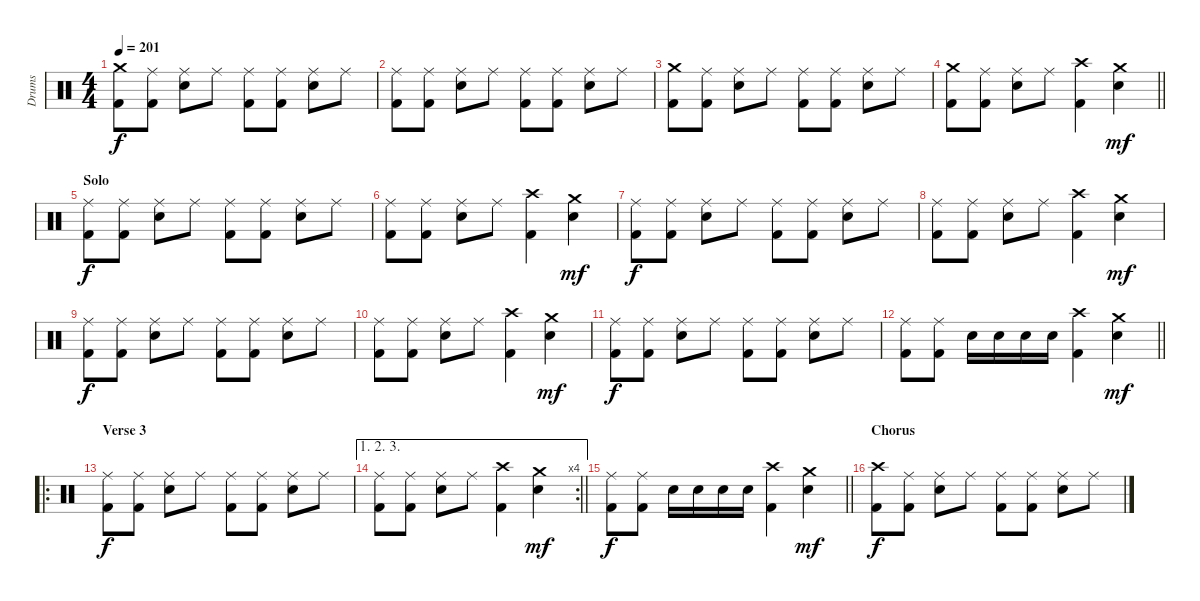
\track ("Drums" "Drums") {instrument percussion}
\staff {score}
\articulation defaults
\ts (4 4)
\tempo 201
\clef neutral
\ks c
("Crash medium (hit)" "Kick (hit) 2").8{dy f} ("Ride (middle)" "Kick (hit) 2").8 ("Ride (middle)" "Electric Snare (hit)").8 "Ride (middle)".8 ("Ride (middle)" "Kick (hit) 2").8 ("Ride (middle)" "Kick (hit) 2").8 ("Ride (middle)" "Electric Snare (hit)").8 "Ride (middle)".8 |
("Ride (middle)" "Kick (hit) 2").8 ("Ride (middle)" "Kick (hit) 2").8 ("Ride (middle)" "Electric Snare (hit)").8 "Ride (middle)".8 ("Ride (middle)" "Kick (hit) 2").8 ("Ride (middle)" "Kick (hit) 2").8 ("Ride (middle)" "Electric Snare (hit)").8 "Ride (middle)".8 |
("Crash medium (hit)" "Kick (hit) 2").8 ("Ride (middle)" "Kick (hit) 2").8 ("Ride (middle)" "Electric Snare (hit)").8 "Ride (middle)".8 ("Ride (middle)" "Kick (hit) 2").8 ("Ride (middle)" "Kick (hit) 2").8 ("Ride (middle)" "Electric Snare (hit)").8 "Ride (middle)".8 |
\barLineRight lightlight
("Crash medium (hit)" "Kick (hit) 2").8 ("Ride (middle)" "Kick (hit) 2").8 ("Ride (middle)" "Electric Snare (hit)").8 "Ride (middle)".8 ("Crash high (hit)" "Kick (hit) 2").4 ("Crash medium (hit)" "Electric Snare (hit)").4{dy mf} |
\section ("" "Solo")
("Ride (middle)" "Kick (hit) 2").8{dy f} ("Ride (middle)" "Kick (hit) 2").8 ("Ride (middle)" "Electric Snare (hit)").8 "Ride (middle)".8 ("Ride (middle)" "Kick (hit) 2").8 ("Ride (middle)" "Kick (hit) 2").8 ("Ride (middle)" "Electric Snare (hit)").8 "Ride (middle)".8 |
("Ride (middle)" "Kick (hit) 2").8 ("Ride (middle)" "Kick (hit) 2").8 ("Ride (middle)" "Electric Snare (hit)").8 "Ride (middle)".8 ("Crash high (hit)" "Kick (hit) 2").4 ("Crash medium (hit)" "Electric Snare (hit)").4{dy mf} |
("Ride (middle)" "Kick (hit) 2").8{dy f} ("Ride (middle)" "Kick (hit) 2").8 ("Ride (middle)" "Electric Snare (hit)").8 "Ride (middle)".8 ("Ride (middle)" "Kick (hit) 2").8 ("Ride (middle)" "Kick (hit) 2").8 ("Ride (middle)" "Electric Snare (hit)").8 "Ride (middle)".8 |
("Ride (middle)" "Kick (hit) 2").8 ("Ride (middle)" "Kick (hit) 2").8 ("Ride (middle)" "Electric Snare (hit)").8 "Ride (middle)".8 ("Crash high (hit)" "Kick (hit) 2").4 ("Crash medium (hit)" "Electric Snare (hit)").4{dy mf} |
("Ride (middle)" "Kick (hit) 2").8{dy f} ("Ride (middle)" "Kick (hit) 2").8 ("Ride (middle)" "Electric Snare (hit)").8 "Ride (middle)".8 ("Ride (middle)" "Kick (hit) 2").8 ("Ride (middle)" "Kick (hit) 2").8 ("Ride (middle)" "Electric Snare (hit)").8 "Ride (middle)".8 |
("Ride (middle)" "Kick (hit) 2").8 ("Ride (middle)" "Kick (hit) 2").8 ("Ride (middle)" "Electric Snare (hit)").8 "Ride (middle)".8 ("Crash high (hit)" "Kick (hit) 2").4 ("Crash medium (hit)" "Electric Snare (hit)").4{dy mf} |
("Ride (middle)" "Kick (hit) 2").8{dy f} ("Ride (middle)" "Kick (hit) 2").8 ("Ride (middle)" "Electric Snare (hit)").8 "Ride (middle)".8 ("Ride (middle)" "Kick (hit) 2").8 ("Ride (middle)" "Kick (hit) 2").8 ("Ride (middle)" "Electric Snare (hit)").8 "Ride (middle)".8 |
\barLineRight lightlight
("Ride (middle)" "Kick (hit) 2").8 ("Ride (middle)" "Kick (hit) 2").8 "Electric Snare (hit)".16 "Electric Snare (hit)".16 "Electric Snare (hit)".16 "Electric Snare (hit)".16 ("Crash high (hit)" "Kick (hit) 2").4 ("Crash medium (hit)" "Electric Snare (hit)").4{dy mf} |
\ro
\section ("" "Verse 3")
("Ride (middle)" "Kick (hit) 2").8{dy f} ("Ride (middle)" "Kick (hit) 2").8 ("Ride (middle)" "Electric Snare (hit)").8 "Ride (middle)".8 ("Ride (middle)" "Kick (hit) 2").8 ("Ride (middle)" "Kick (hit) 2").8 ("Ride (middle)" "Electric Snare (hit)").8 "Ride (middle)".8 |
\ae (1 2 3)
\rc 4
\barLineRight lightlight
("Ride (middle)" "Kick (hit) 2").8 ("Ride (middle)" "Kick (hit) 2").8 ("Ride (middle)" "Electric Snare (hit)").8 "Ride (middle)".8 ("Crash high (hit)" "Kick (hit) 2").4 ("Crash medium (hit)" "Electric Snare (hit)").4{dy mf} |
\barLineRight lightlight
("Ride (middle)" "Kick (hit) 2").8{dy f} ("Ride (middle)" "Kick (hit) 2").8 "Electric Snare (hit)".16 "Electric Snare (hit)".16 "Electric Snare (hit)".16 "Electric Snare (hit)".16 ("Crash high (hit)" "Kick (hit) 2").4 ("Crash medium (hit)" "Electric Snare (hit)").4{dy mf} |
\section ("" "Chorus")
("Crash high (hit)" "Kick (hit) 2").8{dy f} ("Ride (middle)" "Kick (hit) 2").8 ("Ride (middle)" "Electric Snare (hit)").8 "Ride (middle)".8 ("Ride (middle)" "Kick (hit) 2").8 ("Ride (middle)" "Kick (hit) 2").8 ("Ride (middle)" "Electric Snare (hit)").8 "Ride (middle)".8
